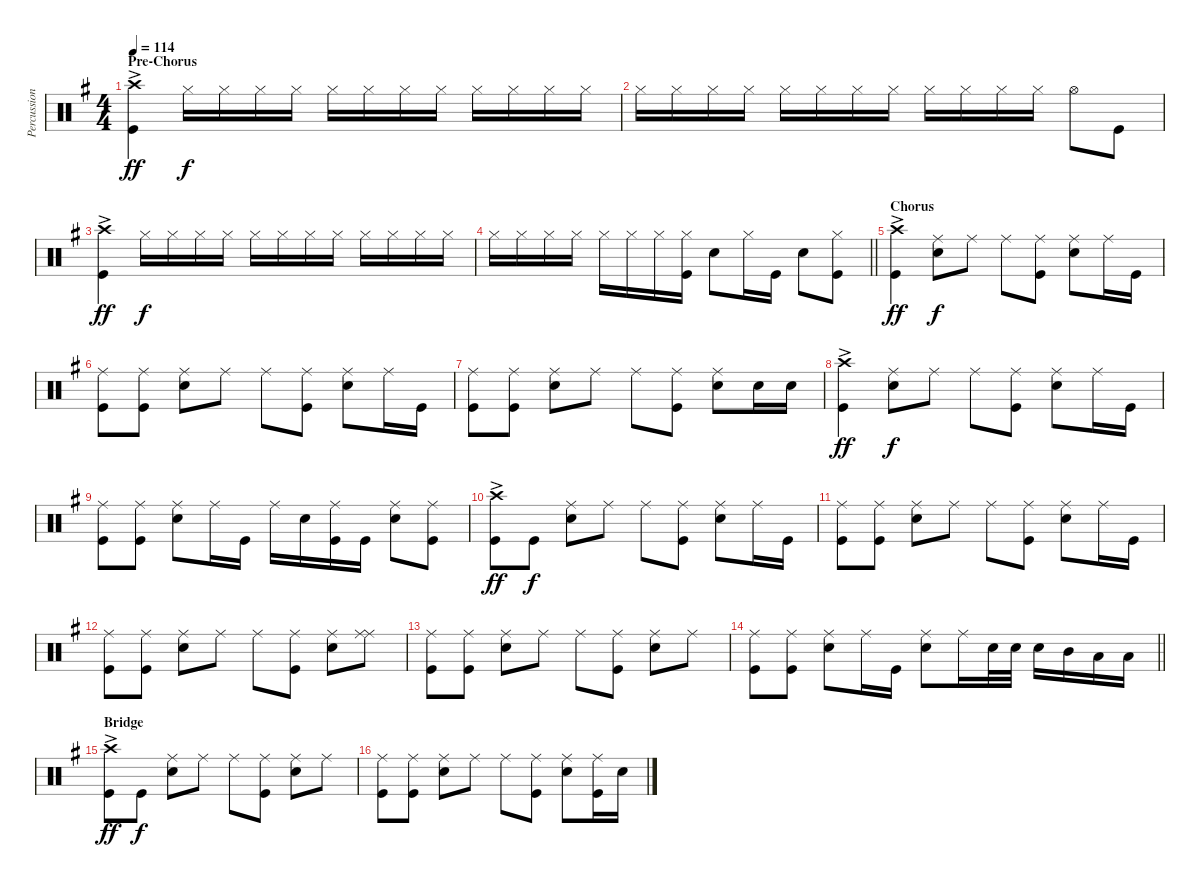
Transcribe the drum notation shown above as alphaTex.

\track ("Percussion" "Percussion") {instrument percussion}
\staff {score}
\articulation defaults
\ts (4 4)
\section ("" "Pre-Chorus")
\tempo 114
\clef neutral
\ks g
("Crash high (hit)"{ac} "Kick (hit)").4{dy ff} "Hi-Hat (closed)".16{dy f} "Hi-Hat (closed)".16 "Hi-Hat (closed)".16 "Hi-Hat (closed)".16 "Hi-Hat (closed)".16 "Hi-Hat (closed)".16 "Hi-Hat (closed)".16 "Hi-Hat (closed)".16 "Hi-Hat (closed)".16 "Hi-Hat (closed)".16 "Hi-Hat (closed)".16 "Hi-Hat (closed)".16 |
"Hi-Hat (closed)".16 "Hi-Hat (closed)".16 "Hi-Hat (closed)".16 "Hi-Hat (closed)".16 "Hi-Hat (closed)".16 "Hi-Hat (closed)".16 "Hi-Hat (closed)".16 "Hi-Hat (closed)".16 "Hi-Hat (closed)".16 "Hi-Hat (closed)".16 "Hi-Hat (closed)".16 "Hi-Hat (closed)".16 "Hi-Hat (open)".8 "Kick (hit)".8 |
("Crash high (hit)"{ac} "Kick (hit)").4{dy ff} "Hi-Hat (closed)".16{dy f} "Hi-Hat (closed)".16 "Hi-Hat (closed)".16 "Hi-Hat (closed)".16 "Hi-Hat (closed)".16 "Hi-Hat (closed)".16 "Hi-Hat (closed)".16 "Hi-Hat (closed)".16 "Hi-Hat (closed)".16 "Hi-Hat (closed)".16 "Hi-Hat (closed)".16 "Hi-Hat (closed)".16 |
\barLineRight lightlight "Hi-Hat (closed)".16 "Hi-Hat (closed)".16 "Hi-Hat (closed)".16 "Hi-Hat (closed)".16 "Hi-Hat (closed)".16 "Hi-Hat (closed)".16 "Hi-Hat (closed)".16
("Hi-Hat (closed)" "Kick (hit)").16 "Snare (hit) 2".8 "Hi-Hat (closed)".16 "Kick (hit)".16 "Snare (hit) 2".8 ("Hi-Hat (closed)" "Kick (hit)").8 |
\section ("" "Chorus")
("Crash high (hit)"{ac} "Kick (hit)").4{dy ff} ("Ride (middle)" "Snare (hit) 2").8{dy f} "Ride (middle)".8 "Ride (middle)".8 ("Ride (middle)" "Kick (hit)").8 ("Ride (middle)" "Snare (hit) 2").8 "Ride (middle)".16 "Kick (hit)".16 |
("Ride (middle)" "Kick (hit)").8 ("Ride (middle)" "Kick (hit)").8 ("Ride (middle)" "Snare (hit) 2").8 "Ride (middle)".8 "Ride (middle)".8 ("Ride (middle)" "Kick (hit)").8 ("Ride (middle)" "Snare (hit) 2").8 "Ride (middle)".16 "Kick (hit)".16 |
("Ride (middle)" "Kick (hit)").8 ("Ride (middle)" "Kick (hit)").8 ("Ride (middle)" "Snare (hit) 2").8 "Ride (middle)".8 "Ride (middle)".8 ("Ride (middle)" "Kick (hit)").8 ("Ride (middle)" "Snare (hit) 2").8 "Snare (hit) 2".16 "Snare (hit) 2".16 |
("Crash high (hit)"{ac} "Kick (hit)").4{dy ff} ("Ride (middle)" "Snare (hit) 2").8{dy f} "Ride (middle)".8 "Ride (middle)".8 ("Ride (middle)" "Kick (hit)").8 ("Ride (middle)" "Snare (hit) 2").8 "Ride (middle)".16 "Kick (hit)".16 |
("Ride (middle)" "Kick (hit)").8 ("Ride (middle)" "Kick (hit)").8 ("Ride (middle)" "Snare (hit) 2").8 "Ride (middle)".16 "Kick (hit)".16 "Ride (middle)".16 "Snare (hit) 2".16 ("Ride (middle)" "Kick (hit)").16 "Kick (hit)".16 ("Ride (middle)" "Snare (hit) 2").8 ("Ride (middle)" "Kick (hit)").8 |
("Crash high (hit)"{ac} "Kick (hit)").8{dy ff} "Kick (hit)".8{dy f} ("Ride (middle)" "Snare (hit) 2").8 "Ride (middle)".8 "Ride (middle)".8 ("Ride (middle)" "Kick (hit)").8 ("Ride (middle)" "Snare (hit) 2").8 "Ride (middle)".16 "Kick (hit)".16 |
("Ride (middle)" "Kick (hit)").8 ("Ride (middle)" "Kick (hit)").8 ("Ride (middle)" "Snare (hit) 2").8 "Ride (middle)".8 "Ride (middle)".8 ("Ride (middle)" "Kick (hit)").8 ("Ride (middle)" "Snare (hit) 2").8 "Ride (middle)".16 "Kick (hit)".16 |
("Ride (middle)" "Kick (hit)").8 ("Ride (middle)" "Kick (hit)").8 ("Ride (middle)" "Snare (hit) 2").8 "Ride (middle)".8 "Ride (middle)".8 ("Ride (middle)" "Kick (hit)").8 ("Ride (middle)" "Snare (hit) 2").8 ("Ride (middle)" "Ride (middle)").8 |
("Ride (middle)" "Kick (hit)").8 ("Ride (middle)" "Kick (hit)").8 ("Ride (middle)" "Snare (hit) 2").8 "Ride (middle)".8 "Ride (middle)".8 ("Ride (middle)" "Kick (hit)").8 ("Ride (middle)" "Snare (hit) 2").8 "Ride (middle)".8 |
\barLineRight lightlight
("Ride (middle)" "Kick (hit)").8 ("Ride (middle)" "Kick (hit)").8 ("Ride (middle)" "Snare (hit) 2").8 "Ride (middle)".16 "Kick (hit)".16 ("Ride (middle)" "Snare (hit) 2").8 "Ride (middle)".16 "Snare (hit) 2".32 "Snare (hit) 2".32 "Snare (hit) 2".16 "Mid Tom (hit)".16 "Low Tom (hit)".16 "Low Tom (hit)".16 |
\section ("" "Bridge")
("Crash high (hit)"{ac} "Kick (hit)").8{dy ff} "Kick (hit)".8{dy f} ("Ride (middle)" "Snare (hit) 2").8 "Ride (middle)".8 "Ride (middle)".8 ("Ride (middle)" "Kick (hit)").8 ("Ride (middle)" "Snare (hit) 2").8 "Ride (middle)".8 |
("Ride (middle)" "Kick (hit)").8 ("Ride (middle)" "Kick (hit)").8 ("Ride (middle)" "Snare (hit) 2").8 "Ride (middle)".8 "Ride (middle)".8 ("Ride (middle)" "Kick (hit)").8 ("Ride (middle)" "Snare (hit) 2").8 ("Ride (middle)" "Kick (hit)").16 "Snare (hit) 2".16
